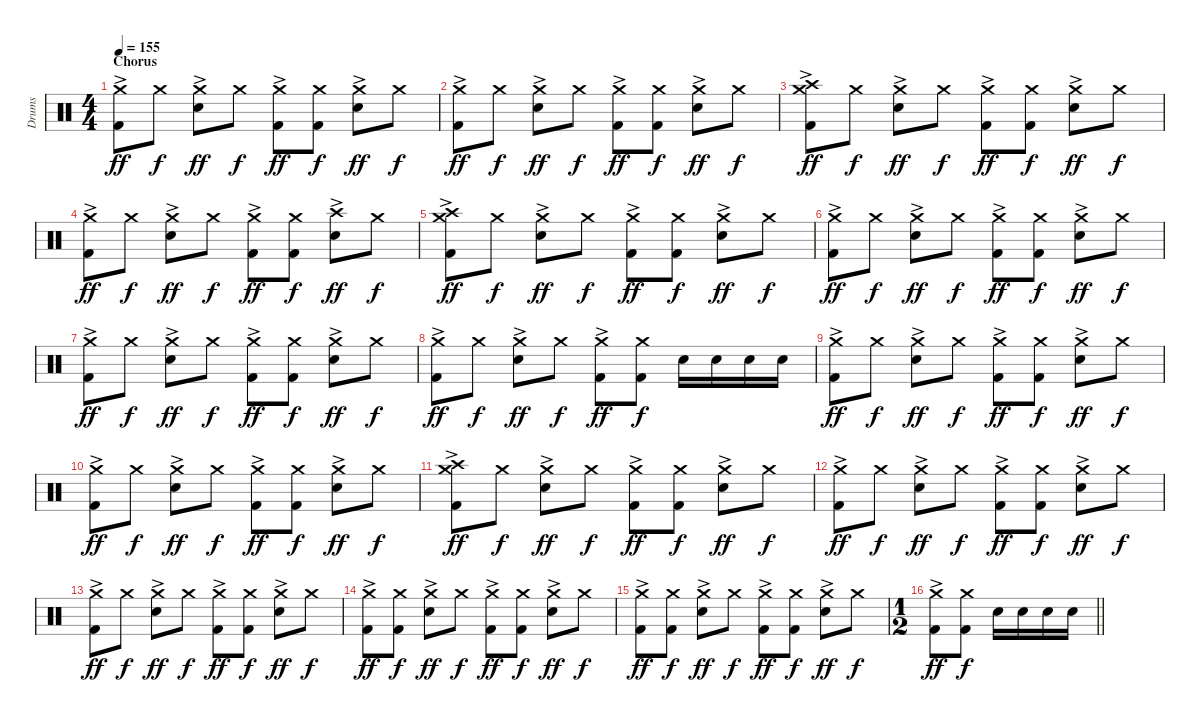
\track ("Drums" "Drums") {instrument percussion}
\staff {score}
\articulation defaults
\ts (4 4)
\section ("" "Chorus")
\tempo 155
\clef neutral
\ks c
("Crash medium (hit)"{ac} "Kick (hit) 2").8{dy ff} "Crash medium (hit)".8{dy f} ("Crash medium (hit)"{ac} "Electric Snare (hit)").8{dy ff} "Crash medium (hit)".8{dy f} ("Crash medium (hit)"{ac} "Kick (hit) 2").8{dy ff} ("Crash medium (hit)" "Kick (hit) 2").8{dy f} ("Crash medium (hit)"{ac} "Electric Snare (hit)").8{dy ff} "Crash medium (hit)".8{dy f} |
("Crash medium (hit)"{ac} "Kick (hit) 2").8{dy ff} "Crash medium (hit)".8{dy f} ("Crash medium (hit)"{ac} "Electric Snare (hit)").8{dy ff} "Crash medium (hit)".8{dy f} ("Crash medium (hit)"{ac} "Kick (hit) 2").8{dy ff} ("Crash medium (hit)" "Kick (hit) 2").8{dy f} ("Crash medium (hit)"{ac} "Electric Snare (hit)").8{dy ff} "Crash medium (hit)".8{dy f} |
("Crash medium (hit)"{ac} "Crash high (hit)" "Kick (hit) 2").8{dy ff} "Crash medium (hit)".8{dy f} ("Crash medium (hit)"{ac} "Electric Snare (hit)").8{dy ff} "Crash medium (hit)".8{dy f} ("Crash medium (hit)"{ac} "Kick (hit) 2").8{dy ff} ("Crash medium (hit)" "Kick (hit) 2").8{dy f} ("Crash medium (hit)"{ac} "Electric Snare (hit)").8{dy ff} "Crash medium (hit)".8{dy f} |
("Crash medium (hit)"{ac} "Kick (hit) 2").8{dy ff} "Crash medium (hit)".8{dy f} ("Crash medium (hit)"{ac} "Electric Snare (hit)").8{dy ff} "Crash medium (hit)".8{dy f} ("Crash medium (hit)"{ac} "Kick (hit) 2").8{dy ff} ("Crash medium (hit)" "Kick (hit) 2").8{dy f} ("Crash high (hit)"{ac} "Electric Snare (hit)").8{dy ff} "Crash medium (hit)".8{dy f} |
("Crash medium (hit)"{ac} "Crash high (hit)" "Kick (hit) 2").8{dy ff} "Crash medium (hit)".8{dy f} ("Crash medium (hit)"{ac} "Electric Snare (hit)").8{dy ff} "Crash medium (hit)".8{dy f} ("Crash medium (hit)"{ac} "Kick (hit) 2").8{dy ff} ("Crash medium (hit)" "Kick (hit) 2").8{dy f} ("Crash medium (hit)"{ac} "Electric Snare (hit)").8{dy ff} "Crash medium (hit)".8{dy f} |
("Crash medium (hit)"{ac} "Kick (hit) 2").8{dy ff} "Crash medium (hit)".8{dy f} ("Crash medium (hit)"{ac} "Electric Snare (hit)").8{dy ff} "Crash medium (hit)".8{dy f} ("Crash medium (hit)"{ac} "Kick (hit) 2").8{dy ff} ("Crash medium (hit)" "Kick (hit) 2").8{dy f} ("Crash medium (hit)"{ac} "Electric Snare (hit)").8{dy ff} "Crash medium (hit)".8{dy f} |
("Crash medium (hit)"{ac} "Kick (hit) 2").8{dy ff} "Crash medium (hit)".8{dy f} ("Crash medium (hit)"{ac} "Electric Snare (hit)").8{dy ff} "Crash medium (hit)".8{dy f} ("Crash medium (hit)"{ac} "Kick (hit) 2").8{dy ff} ("Crash medium (hit)" "Kick (hit) 2").8{dy f} ("Crash medium (hit)"{ac} "Electric Snare (hit)").8{dy ff} "Crash medium (hit)".8{dy f} |
("Crash medium (hit)"{ac} "Kick (hit) 2").8{dy ff} "Crash medium (hit)".8{dy f} ("Crash medium (hit)"{ac} "Electric Snare (hit)").8{dy ff} "Crash medium (hit)".8{dy f} ("Crash medium (hit)"{ac} "Kick (hit) 2").8{dy ff} ("Crash medium (hit)" "Kick (hit) 2").8{dy f} "Electric Snare (hit)".16 "Electric Snare (hit)".16 "Electric Snare (hit)".16 "Electric Snare (hit)".16 |
("Crash medium (hit)"{ac} "Kick (hit) 2").8{dy ff} "Crash medium (hit)".8{dy f} ("Crash medium (hit)"{ac} "Electric Snare (hit)").8{dy ff} "Crash medium (hit)".8{dy f} ("Crash medium (hit)"{ac} "Kick (hit) 2").8{dy ff} ("Crash medium (hit)" "Kick (hit) 2").8{dy f} ("Crash medium (hit)"{ac} "Electric Snare (hit)").8{dy ff} "Crash medium (hit)".8{dy f} |
("Crash medium (hit)"{ac} "Kick (hit) 2").8{dy ff} "Crash medium (hit)".8{dy f} ("Crash medium (hit)"{ac} "Electric Snare (hit)").8{dy ff} "Crash medium (hit)".8{dy f} ("Crash medium (hit)"{ac} "Kick (hit) 2").8{dy ff} ("Crash medium (hit)" "Kick (hit) 2").8{dy f} ("Crash medium (hit)"{ac} "Electric Snare (hit)").8{dy ff} "Crash medium (hit)".8{dy f} |
("Crash medium (hit)"{ac} "Crash high (hit)" "Kick (hit) 2").8{dy ff} "Crash medium (hit)".8{dy f} ("Crash medium (hit)"{ac} "Electric Snare (hit)").8{dy ff} "Crash medium (hit)".8{dy f} ("Crash medium (hit)"{ac} "Kick (hit) 2").8{dy ff} ("Crash medium (hit)" "Kick (hit) 2").8{dy f} ("Crash medium (hit)"{ac} "Electric Snare (hit)").8{dy ff} "Crash medium (hit)".8{dy f} |
("Crash medium (hit)"{ac} "Kick (hit) 2").8{dy ff} "Crash medium (hit)".8{dy f} ("Crash medium (hit)"{ac} "Electric Snare (hit)").8{dy ff} "Crash medium (hit)".8{dy f} ("Crash medium (hit)"{ac} "Kick (hit) 2").8{dy ff} ("Crash medium (hit)" "Kick (hit) 2").8{dy f} ("Crash medium (hit)"{ac} "Electric Snare (hit)").8{dy ff} "Crash medium (hit)".8{dy f} |
("Crash medium (hit)"{ac} "Kick (hit) 2").8{dy ff} "Crash medium (hit)".8{dy f} ("Crash medium (hit)"{ac} "Electric Snare (hit)").8{dy ff} "Crash medium (hit)".8{dy f} ("Crash medium (hit)"{ac} "Kick (hit) 2").8{dy ff} ("Crash medium (hit)" "Kick (hit) 2").8{dy f} ("Crash medium (hit)"{ac} "Electric Snare (hit)").8{dy ff} "Crash medium (hit)".8{dy f} |
("Crash medium (hit)"{ac} "Kick (hit) 2").8{dy ff} ("Crash medium (hit)" "Kick (hit) 2").8{dy f} ("Crash medium (hit)"{ac} "Electric Snare (hit)").8{dy ff} "Crash medium (hit)".8{dy f} ("Crash medium (hit)"{ac} "Kick (hit) 2").8{dy ff} ("Crash medium (hit)" "Kick (hit) 2").8{dy f} ("Crash medium (hit)"{ac} "Electric Snare (hit)").8{dy ff} "Crash medium (hit)".8{dy f} |
("Crash medium (hit)"{ac} "Kick (hit) 2").8{dy ff} ("Crash medium (hit)" "Kick (hit) 2").8{dy f} ("Crash medium (hit)"{ac} "Electric Snare (hit)").8{dy ff} "Crash medium (hit)".8{dy f} ("Crash medium (hit)"{ac} "Kick (hit) 2").8{dy ff} ("Crash medium (hit)" "Kick (hit) 2").8{dy f} ("Crash medium (hit)"{ac} "Electric Snare (hit)").8{dy ff} "Crash medium (hit)".8{dy f} |
\ts (1 2)
\barLineRight lightlight
("Crash medium (hit)"{ac} "Kick (hit) 2").8{dy ff} ("Crash medium (hit)" "Kick (hit) 2").8{dy f} "Electric Snare (hit)".16 "Electric Snare (hit)".16 "Electric Snare (hit)".16 "Electric Snare (hit)".16
